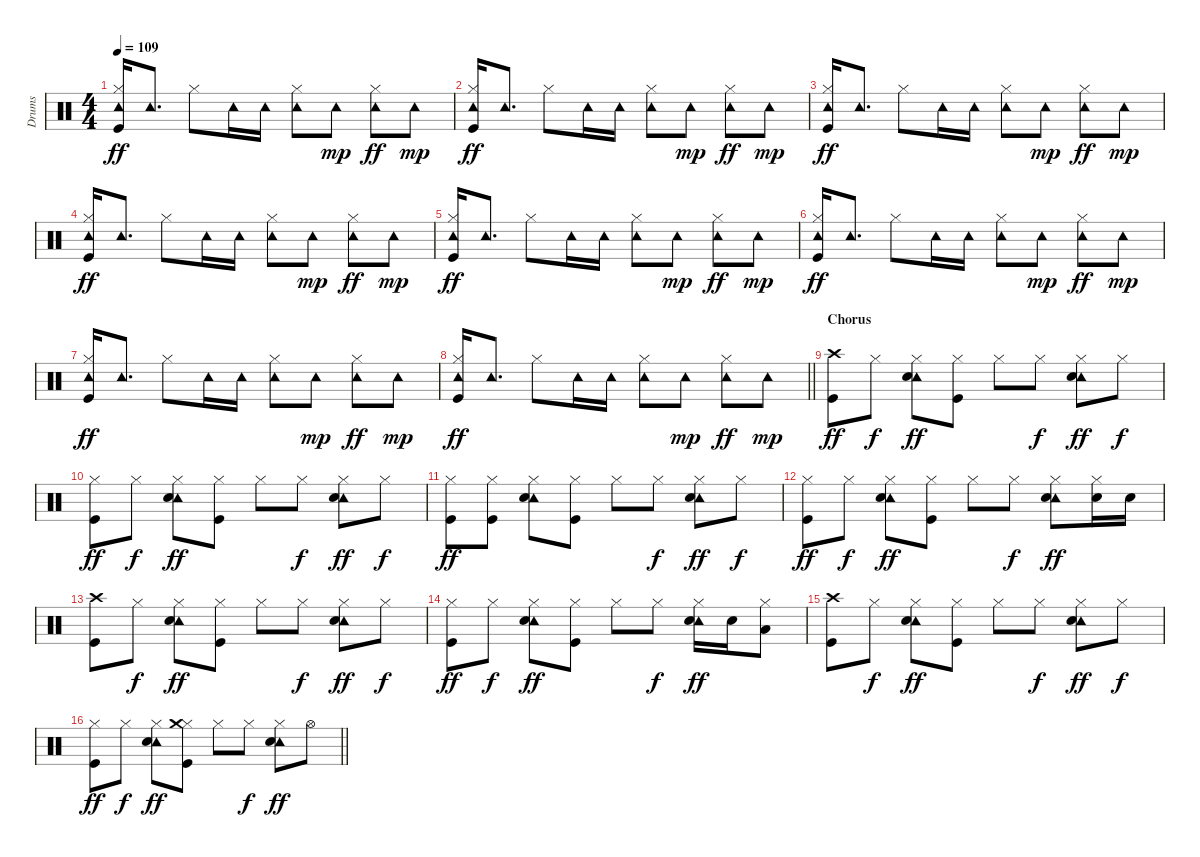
\track ("Drums" "Drums") {instrument percussion}
\staff {score}
\articulation defaults
\ts (4 4)
\tempo 109
\clef neutral
\ks c
("Tambourine (hit)" "Hi-Hat (closed)" "Kick (hit)").16{dy ff} "Tambourine (hit)".8{d} "Hi-Hat (closed)".8 "Tambourine (hit)".16 "Tambourine (hit)".16 ("Tambourine (hit)" "Hi-Hat (closed)").8 "Tambourine (hit)".8{dy mp} ("Tambourine (hit)" "Hi-Hat (closed)").8{dy ff} "Tambourine (hit)".8{dy mp} |
("Tambourine (hit)" "Hi-Hat (closed)" "Kick (hit)").16{dy ff} "Tambourine (hit)".8{d} "Hi-Hat (closed)".8 "Tambourine (hit)".16 "Tambourine (hit)".16 ("Tambourine (hit)" "Hi-Hat (closed)").8 "Tambourine (hit)".8{dy mp} ("Tambourine (hit)" "Hi-Hat (closed)").8{dy ff} "Tambourine (hit)".8{dy mp} |
("Tambourine (hit)" "Hi-Hat (closed)" "Kick (hit)").16{dy ff} "Tambourine (hit)".8{d} "Hi-Hat (closed)".8 "Tambourine (hit)".16 "Tambourine (hit)".16 ("Tambourine (hit)" "Hi-Hat (closed)").8 "Tambourine (hit)".8{dy mp} ("Tambourine (hit)" "Hi-Hat (closed)").8{dy ff} "Tambourine (hit)".8{dy mp} |
("Tambourine (hit)" "Hi-Hat (closed)" "Kick (hit)").16{dy ff} "Tambourine (hit)".8{d} "Hi-Hat (closed)".8 "Tambourine (hit)".16 "Tambourine (hit)".16 ("Tambourine (hit)" "Hi-Hat (closed)").8 "Tambourine (hit)".8{dy mp} ("Tambourine (hit)" "Hi-Hat (closed)").8{dy ff} "Tambourine (hit)".8{dy mp} |
("Tambourine (hit)" "Hi-Hat (closed)" "Kick (hit)").16{dy ff} "Tambourine (hit)".8{d} "Hi-Hat (closed)".8 "Tambourine (hit)".16 "Tambourine (hit)".16 ("Tambourine (hit)" "Hi-Hat (closed)").8 "Tambourine (hit)".8{dy mp} ("Tambourine (hit)" "Hi-Hat (closed)").8{dy ff} "Tambourine (hit)".8{dy mp} |
("Tambourine (hit)" "Hi-Hat (closed)" "Kick (hit)").16{dy ff} "Tambourine (hit)".8{d} "Hi-Hat (closed)".8 "Tambourine (hit)".16 "Tambourine (hit)".16 ("Tambourine (hit)" "Hi-Hat (closed)").8 "Tambourine (hit)".8{dy mp} ("Tambourine (hit)" "Hi-Hat (closed)").8{dy ff} "Tambourine (hit)".8{dy mp} |
("Tambourine (hit)" "Hi-Hat (closed)" "Kick (hit)").16{dy ff} "Tambourine (hit)".8{d} "Hi-Hat (closed)".8 "Tambourine (hit)".16 "Tambourine (hit)".16 ("Tambourine (hit)" "Hi-Hat (closed)").8 "Tambourine (hit)".8{dy mp} ("Tambourine (hit)" "Hi-Hat (closed)").8{dy ff} "Tambourine (hit)".8{dy mp} |
\barLineRight lightlight
("Tambourine (hit)" "Hi-Hat (closed)" "Kick (hit)").16{dy ff} "Tambourine (hit)".8{d} "Hi-Hat (closed)".8 "Tambourine (hit)".16 "Tambourine (hit)".16 ("Tambourine (hit)" "Hi-Hat (closed)").8 "Tambourine (hit)".8{dy mp} ("Tambourine (hit)" "Hi-Hat (closed)").8{dy ff} "Tambourine (hit)".8{dy mp} |
\section ("" "Chorus")
("Crash high (hit)" "Kick (hit)").8{dy ff} "Hi-Hat (closed)".8{dy f} ("Hi-Hat (closed)" "Tambourine (hit)" "Electric Snare (hit)").8{dy ff} ("Hi-Hat (closed)" "Kick (hit)").8 "Hi-Hat (closed)".8 "Hi-Hat (closed)".8{dy f} ("Hi-Hat (closed)" "Tambourine (hit)" "Electric Snare (hit)").8{dy ff} "Hi-Hat (closed)".8{dy f} |
("Hi-Hat (closed)" "Kick (hit)").8{dy ff} "Hi-Hat (closed)".8{dy f} ("Hi-Hat (closed)" "Tambourine (hit)" "Electric Snare (hit)").8{dy ff} ("Hi-Hat (closed)" "Kick (hit)").8 "Hi-Hat (closed)".8 "Hi-Hat (closed)".8{dy f} ("Hi-Hat (closed)" "Tambourine (hit)" "Electric Snare (hit)").8{dy ff} "Hi-Hat (closed)".8{dy f} |
("Hi-Hat (closed)" "Kick (hit)").8{dy ff} ("Hi-Hat (closed)" "Kick (hit)").8 ("Hi-Hat (closed)" "Tambourine (hit)" "Electric Snare (hit)").8 ("Hi-Hat (closed)" "Kick (hit)").8 "Hi-Hat (closed)".8 "Hi-Hat (closed)".8{dy f} ("Hi-Hat (closed)" "Tambourine (hit)" "Electric Snare (hit)").8{dy ff} "Hi-Hat (closed)".8{dy f} |
("Hi-Hat (closed)" "Kick (hit)").8{dy ff} "Hi-Hat (closed)".8{dy f} ("Hi-Hat (closed)" "Tambourine (hit)" "Electric Snare (hit)").8{dy ff} ("Hi-Hat (closed)" "Kick (hit)").8 "Hi-Hat (closed)".8 "Hi-Hat (closed)".8{dy f} ("Hi-Hat (closed)" "Tambourine (hit)" "Electric Snare (hit)").8{dy ff} ("Hi-Hat (closed)" "Electric Snare (hit)").16 "Electric Snare (hit)".16 |
("Crash high (hit)" "Kick (hit)").8 "Hi-Hat (closed)".8{dy f} ("Hi-Hat (closed)" "Tambourine (hit)" "Electric Snare (hit)").8{dy ff} ("Hi-Hat (closed)" "Kick (hit)").8 "Hi-Hat (closed)".8 "Hi-Hat (closed)".8{dy f} ("Hi-Hat (closed)" "Tambourine (hit)" "Electric Snare (hit)").8{dy ff} "Hi-Hat (closed)".8{dy f} |
("Hi-Hat (closed)" "Kick (hit)").8{dy ff} "Hi-Hat (closed)".8{dy f} ("Hi-Hat (closed)" "Tambourine (hit)" "Electric Snare (hit)").8{dy ff} ("Hi-Hat (closed)" "Kick (hit)").8 "Hi-Hat (closed)".8 "Hi-Hat (closed)".8{dy f} ("Hi-Hat (closed)" "Tambourine (hit)" "Electric Snare (hit)").16{dy ff} "Electric Snare (hit)".16 ("Hi-Hat (closed)" "Low Tom (hit)").8 |
("Crash high (hit)" "Kick (hit)").8 "Hi-Hat (closed)".8{dy f} ("Hi-Hat (closed)" "Tambourine (hit)" "Electric Snare (hit)").8{dy ff} ("Hi-Hat (closed)" "Kick (hit)").8 "Hi-Hat (closed)".8 "Hi-Hat (closed)".8{dy f} ("Hi-Hat (closed)" "Tambourine (hit)" "Electric Snare (hit)").8{dy ff} "Hi-Hat (closed)".8{dy f} |
\barLineRight lightlight
("Hi-Hat (closed)" "Kick (hit)").8{dy ff} "Hi-Hat (closed)".8{dy f} ("Hi-Hat (closed)" "Tambourine (hit)" "Electric Snare (hit)").8{dy ff} ("Hi-Hat (closed)" "Crash medium (hit)" "Kick (hit)").8 "Hi-Hat (closed)".8 "Hi-Hat (closed)".8{dy f} ("Hi-Hat (closed)" "Tambourine (hit)" "Electric Snare (hit)").8{dy ff} "Hi-Hat (open)".8
